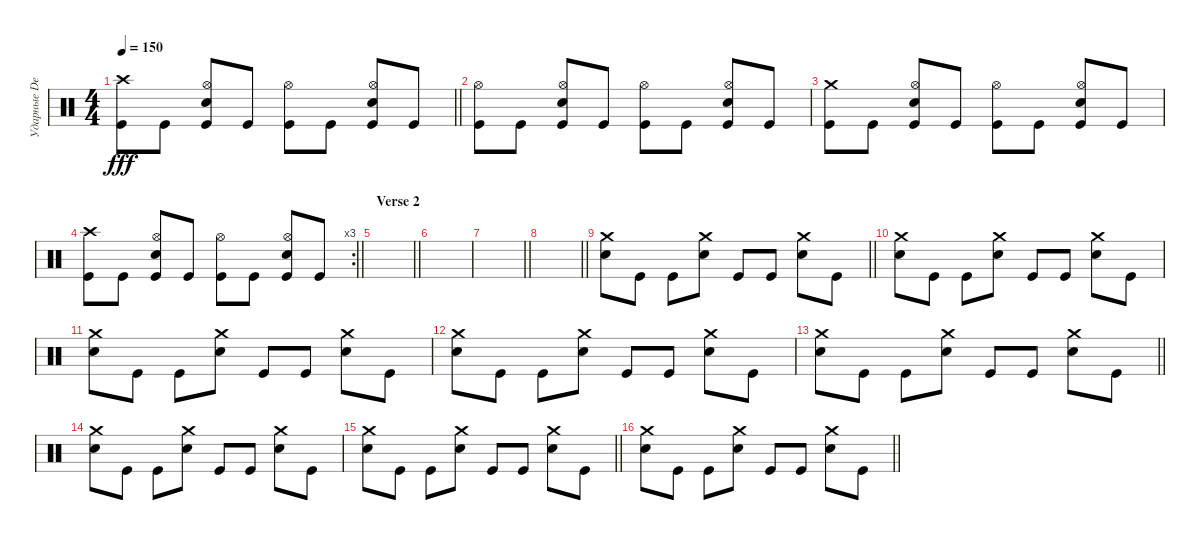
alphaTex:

\track ("Ударные Den" "Ударные De") {instrument percussion}
\staff {score}
\articulation defaults
\ts (4 4)
\tempo 150
\clef neutral
\barLineRight lightlight
\ks c
("Crash high (hit)" "Kick (hit)").8{dy fff} "Kick (hit)".8 ("Hi-Hat (open)" "Electric Snare (hit)" "Kick (hit)").8 "Kick (hit)".8 ("Hi-Hat (open)" "Kick (hit)").8 "Kick (hit)".8 ("Hi-Hat (open)" "Electric Snare (hit)" "Kick (hit)").8 "Kick (hit)".8 |
("Hi-Hat (open)" "Kick (hit)").8 "Kick (hit)".8 ("Hi-Hat (open)" "Electric Snare (hit)" "Kick (hit)").8 "Kick (hit)".8 ("Hi-Hat (open)" "Kick (hit)").8 "Kick (hit)".8 ("Hi-Hat (open)" "Electric Snare (hit)" "Kick (hit)").8 "Kick (hit)".8 |
("Crash medium (hit)" "Kick (hit)").8 "Kick (hit)".8 ("Hi-Hat (open)" "Electric Snare (hit)" "Kick (hit)").8 "Kick (hit)".8 ("Hi-Hat (open)" "Kick (hit)").8 "Kick (hit)".8 ("Hi-Hat (open)" "Electric Snare (hit)" "Kick (hit)").8 "Kick (hit)".8 |
\rc 3
\barLineRight lightlight
("Crash high (hit)" "Kick (hit)").8 "Kick (hit)".8 ("Hi-Hat (open)" "Electric Snare (hit)" "Kick (hit)").8 "Kick (hit)".8 ("Hi-Hat (open)" "Kick (hit)").8 "Kick (hit)".8 ("Hi-Hat (open)" "Electric Snare (hit)" "Kick (hit)").8 "Kick (hit)".8 |
\section ("" "Verse 2")
\barLineRight lightlight
|
|
\barLineRight lightlight
|
\barLineRight lightlight
|
\barLineRight lightlight
("Crash medium (hit)" "Electric Snare (hit)").8 "Kick (hit)".8 "Kick (hit)".8 ("Crash medium (hit)" "Electric Snare (hit)").8 "Kick (hit)".8 "Kick (hit)".8 ("Crash medium (hit)" "Electric Snare (hit)").8 "Kick (hit)".8 |
("Crash medium (hit)" "Electric Snare (hit)").8 "Kick (hit)".8 "Kick (hit)".8 ("Crash medium (hit)" "Electric Snare (hit)").8 "Kick (hit)".8 "Kick (hit)".8 ("Crash medium (hit)" "Electric Snare (hit)").8 "Kick (hit)".8 |
("Crash medium (hit)" "Electric Snare (hit)").8 "Kick (hit)".8 "Kick (hit)".8 ("Crash medium (hit)" "Electric Snare (hit)").8 "Kick (hit)".8 "Kick (hit)".8 ("Crash medium (hit)" "Electric Snare (hit)").8 "Kick (hit)".8 |
("Crash medium (hit)" "Electric Snare (hit)").8 "Kick (hit)".8 "Kick (hit)".8 ("Crash medium (hit)" "Electric Snare (hit)").8 "Kick (hit)".8 "Kick (hit)".8 ("Crash medium (hit)" "Electric Snare (hit)").8 "Kick (hit)".8 |
\barLineRight lightlight
("Crash medium (hit)" "Electric Snare (hit)").8 "Kick (hit)".8 "Kick (hit)".8 ("Crash medium (hit)" "Electric Snare (hit)").8 "Kick (hit)".8 "Kick (hit)".8 ("Crash medium (hit)" "Electric Snare (hit)").8 "Kick (hit)".8 |
("Crash medium (hit)" "Electric Snare (hit)").8 "Kick (hit)".8 "Kick (hit)".8 ("Crash medium (hit)" "Electric Snare (hit)").8 "Kick (hit)".8 "Kick (hit)".8 ("Crash medium (hit)" "Electric Snare (hit)").8 "Kick (hit)".8 |
\barLineRight lightlight
("Crash medium (hit)" "Electric Snare (hit)").8 "Kick (hit)".8 "Kick (hit)".8 ("Crash medium (hit)" "Electric Snare (hit)").8 "Kick (hit)".8 "Kick (hit)".8 ("Crash medium (hit)" "Electric Snare (hit)").8 "Kick (hit)".8 |
\barLineRight lightlight
("Crash medium (hit)" "Electric Snare (hit)").8 "Kick (hit)".8 "Kick (hit)".8 ("Crash medium (hit)" "Electric Snare (hit)").8 "Kick (hit)".8 "Kick (hit)".8 ("Crash medium (hit)" "Electric Snare (hit)").8 "Kick (hit)".8
